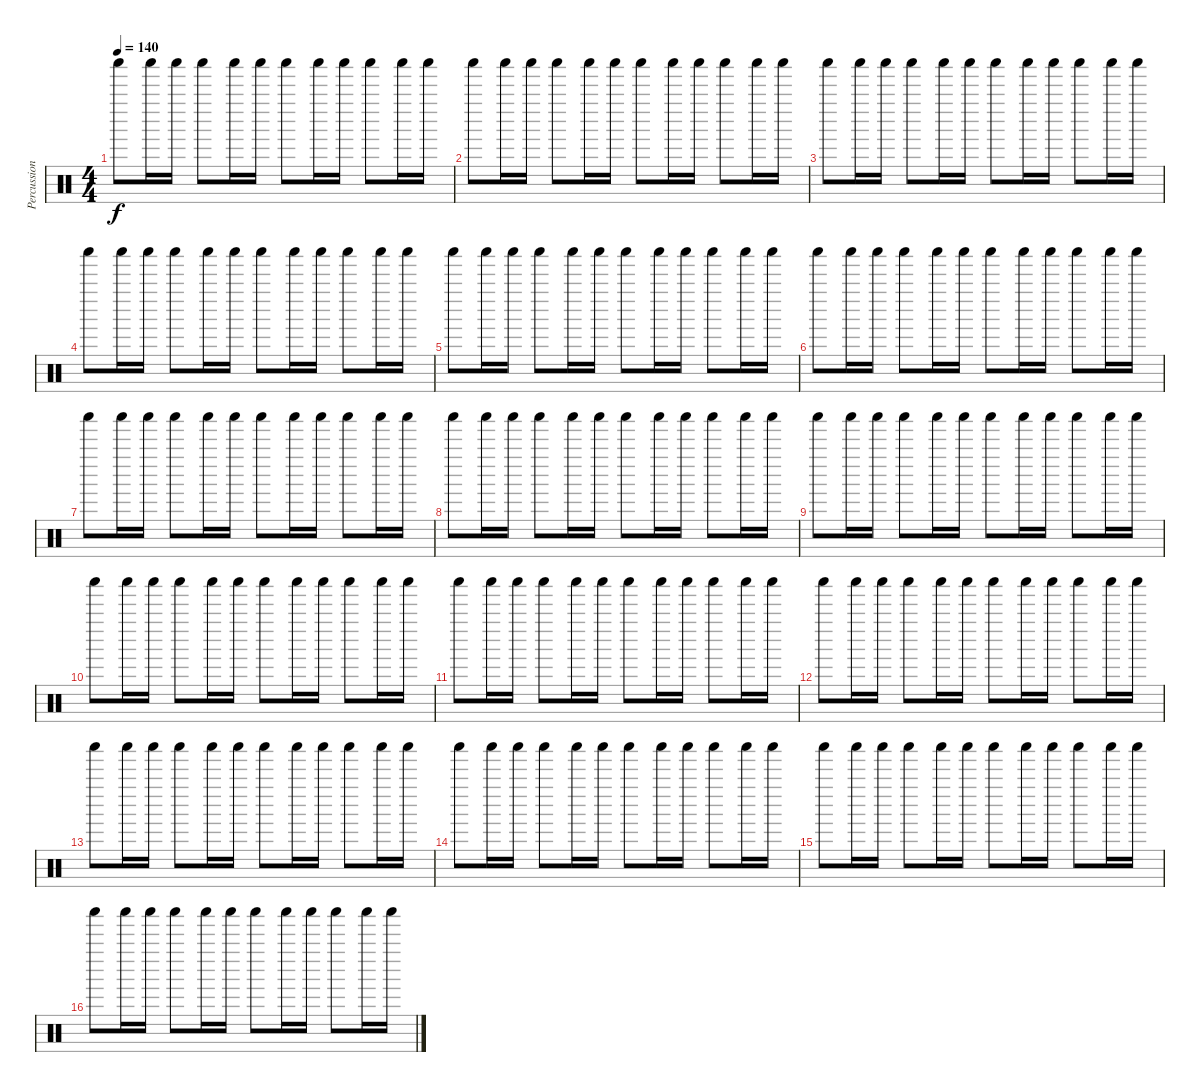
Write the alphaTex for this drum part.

\track ("Percussion" "Percussion") {instrument percussion}
\staff {score}
\articulation defaults
\ts (4 4)
\tempo 140
\clef neutral
\ks c "Shaker (hit)".8{dy f} "Shaker (hit)".16 "Shaker (hit)".16 "Shaker (hit)".8 "Shaker (hit)".16 "Shaker (hit)".16 "Shaker (hit)".8 "Shaker (hit)".16 "Shaker (hit)".16 "Shaker (hit)".8 "Shaker (hit)".16 "Shaker (hit)".16
|
"Shaker (hit)".8 "Shaker (hit)".16 "Shaker (hit)".16 "Shaker (hit)".8 "Shaker (hit)".16 "Shaker (hit)".16 "Shaker (hit)".8 "Shaker (hit)".16 "Shaker (hit)".16 "Shaker (hit)".8 "Shaker (hit)".16 "Shaker (hit)".16 |
"Shaker (hit)".8 "Shaker (hit)".16 "Shaker (hit)".16 "Shaker (hit)".8 "Shaker (hit)".16 "Shaker (hit)".16 "Shaker (hit)".8 "Shaker (hit)".16 "Shaker (hit)".16 "Shaker (hit)".8 "Shaker (hit)".16 "Shaker (hit)".16 |
"Shaker (hit)".8 "Shaker (hit)".16 "Shaker (hit)".16 "Shaker (hit)".8 "Shaker (hit)".16 "Shaker (hit)".16 "Shaker (hit)".8 "Shaker (hit)".16 "Shaker (hit)".16 "Shaker (hit)".8 "Shaker (hit)".16 "Shaker (hit)".16 |
"Shaker (hit)".8 "Shaker (hit)".16 "Shaker (hit)".16 "Shaker (hit)".8 "Shaker (hit)".16 "Shaker (hit)".16 "Shaker (hit)".8 "Shaker (hit)".16 "Shaker (hit)".16 "Shaker (hit)".8 "Shaker (hit)".16 "Shaker (hit)".16 |
"Shaker (hit)".8 "Shaker (hit)".16 "Shaker (hit)".16 "Shaker (hit)".8 "Shaker (hit)".16 "Shaker (hit)".16 "Shaker (hit)".8 "Shaker (hit)".16 "Shaker (hit)".16 "Shaker (hit)".8 "Shaker (hit)".16 "Shaker (hit)".16 |
"Shaker (hit)".8 "Shaker (hit)".16 "Shaker (hit)".16 "Shaker (hit)".8 "Shaker (hit)".16 "Shaker (hit)".16 "Shaker (hit)".8 "Shaker (hit)".16 "Shaker (hit)".16 "Shaker (hit)".8 "Shaker (hit)".16 "Shaker (hit)".16 |
"Shaker (hit)".8 "Shaker (hit)".16 "Shaker (hit)".16 "Shaker (hit)".8 "Shaker (hit)".16 "Shaker (hit)".16 "Shaker (hit)".8 "Shaker (hit)".16 "Shaker (hit)".16 "Shaker (hit)".8 "Shaker (hit)".16 "Shaker (hit)".16 |
"Shaker (hit)".8 "Shaker (hit)".16 "Shaker (hit)".16 "Shaker (hit)".8 "Shaker (hit)".16 "Shaker (hit)".16 "Shaker (hit)".8 "Shaker (hit)".16 "Shaker (hit)".16 "Shaker (hit)".8 "Shaker (hit)".16 "Shaker (hit)".16 |
"Shaker (hit)".8 "Shaker (hit)".16 "Shaker (hit)".16 "Shaker (hit)".8 "Shaker (hit)".16 "Shaker (hit)".16 "Shaker (hit)".8 "Shaker (hit)".16 "Shaker (hit)".16 "Shaker (hit)".8 "Shaker (hit)".16 "Shaker (hit)".16 |
"Shaker (hit)".8 "Shaker (hit)".16 "Shaker (hit)".16 "Shaker (hit)".8 "Shaker (hit)".16 "Shaker (hit)".16 "Shaker (hit)".8 "Shaker (hit)".16 "Shaker (hit)".16 "Shaker (hit)".8 "Shaker (hit)".16 "Shaker (hit)".16 |
"Shaker (hit)".8 "Shaker (hit)".16 "Shaker (hit)".16 "Shaker (hit)".8 "Shaker (hit)".16 "Shaker (hit)".16 "Shaker (hit)".8 "Shaker (hit)".16 "Shaker (hit)".16 "Shaker (hit)".8 "Shaker (hit)".16 "Shaker (hit)".16 |
"Shaker (hit)".8 "Shaker (hit)".16 "Shaker (hit)".16 "Shaker (hit)".8 "Shaker (hit)".16 "Shaker (hit)".16 "Shaker (hit)".8 "Shaker (hit)".16 "Shaker (hit)".16 "Shaker (hit)".8 "Shaker (hit)".16 "Shaker (hit)".16 |
"Shaker (hit)".8 "Shaker (hit)".16 "Shaker (hit)".16 "Shaker (hit)".8 "Shaker (hit)".16 "Shaker (hit)".16 "Shaker (hit)".8 "Shaker (hit)".16 "Shaker (hit)".16 "Shaker (hit)".8 "Shaker (hit)".16 "Shaker (hit)".16 |
"Shaker (hit)".8 "Shaker (hit)".16 "Shaker (hit)".16 "Shaker (hit)".8 "Shaker (hit)".16 "Shaker (hit)".16 "Shaker (hit)".8 "Shaker (hit)".16 "Shaker (hit)".16 "Shaker (hit)".8 "Shaker (hit)".16 "Shaker (hit)".16 |
"Shaker (hit)".8 "Shaker (hit)".16 "Shaker (hit)".16 "Shaker (hit)".8 "Shaker (hit)".16 "Shaker (hit)".16 "Shaker (hit)".8 "Shaker (hit)".16 "Shaker (hit)".16 "Shaker (hit)".8 "Shaker (hit)".16 "Shaker (hit)".16
